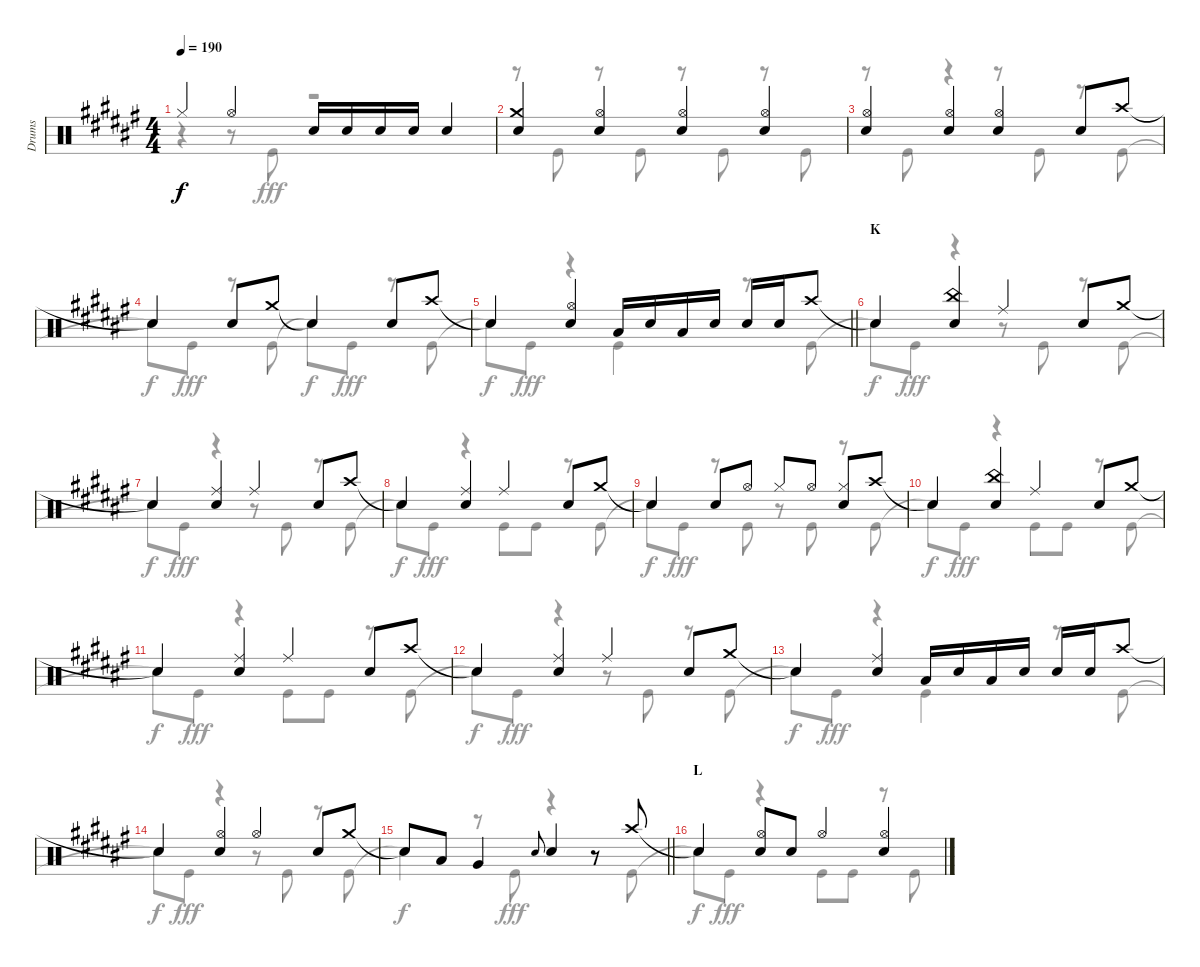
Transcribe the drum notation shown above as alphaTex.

\track ("Drums" "Drums") {instrument percussion}
\staff {score}
\articulation defaults
\voice
\ts (4 4)
\tempo 190
\clef neutral
\ks f# "Hi-Hat (closed)".4{dy f} "Hi-Hat (open)".4 "Snare (hit) 2".16 "Snare (hit) 2".16 "Snare (hit) 2".16 "Snare (hit) 2".16 "Snare (hit) 2".4
|
("Crash medium (hit)" "Snare (hit) 2").4 ("Hi-Hat (open)" "Snare (hit) 2").4 ("Hi-Hat (open)" "Snare (hit) 2").4 ("Hi-Hat (open)" "Snare (hit) 2").4 |
("Hi-Hat (open)" "Snare (hit) 2").4 ("Hi-Hat (open)" "Snare (hit) 2").4 ("Hi-Hat (open)" "Snare (hit) 2").4 "Snare (hit) 2".8 "Crash high (hit)".8 |
"Snare (hit)"{t}.4 "Snare (hit) 2".8 "Crash medium (hit)".8 "Snare (hit)"{t}.4 "Snare (hit) 2".8 "Crash high (hit)".8 |
\barLineRight lightlight "Snare (hit)"{t}.4
("Hi-Hat (open)" "Snare (hit) 2").4 "Low Tom (hit)".16 "Snare (hit) 2".16 "Low Tom (hit)".16 "Snare (hit) 2".16 "Snare (hit) 2".16 "Snare (hit) 2".16 "Crash high (hit)".8 |
\section ("" "K")
"Snare (hit)"{t}.4 ("China (hit)" "Snare (hit) 2").4 "Ride (middle)".4 "Snare (hit) 2".8 "Crash medium (hit)".8 |
"Snare (hit)"{t}.4 ("Ride (middle)" "Snare (hit) 2").4 "Ride (middle)".4 "Snare (hit) 2".8 "Crash high (hit)".8 |
"Snare (hit)"{t}.4 ("Ride (middle)" "Snare (hit) 2").4 "Ride (middle)".4 "Snare (hit) 2".8 "Crash medium (hit)".8 |
"Snare (hit)"{t}.4 "Snare (hit) 2".8 "Hi-Hat (open)".8 "Hi-Hat (closed)".8 "Hi-Hat (open)".8 ("Hi-Hat (closed)" "Snare (hit) 2").8 "Crash high (hit)".8 |
"Snare (hit)"{t}.4 ("China (hit)" "Snare (hit) 2").4 "Ride (middle)".4 "Snare (hit) 2".8 "Crash medium (hit)".8 |
"Snare (hit)"{t}.4 ("Ride (middle)" "Snare (hit) 2").4 "Ride (middle)".4 "Snare (hit) 2".8 "Crash high (hit)".8 |
"Snare (hit)"{t}.4 ("Ride (middle)" "Snare (hit) 2").4 "Ride (middle)".4 "Snare (hit) 2".8 "Crash medium (hit)".8 |
"Snare (hit)"{t}.4 ("Ride (middle)" "Snare (hit) 2").4 "Low Tom (hit)".16 "Snare (hit) 2".16 "Low Tom (hit)".16 "Snare (hit) 2".16 "Snare (hit) 2".16 "Snare (hit) 2".16 "Crash high (hit)".8 |
"Snare (hit)"{t}.4 ("Hi-Hat (open)" "Snare (hit) 2").4 "Hi-Hat (open)".4 "Snare (hit) 2".8 "Crash medium (hit)".8 |
\barLineRight lightlight "Snare (hit)"{t}.8 "Low Tom (hit)".8 "Very Low Tom (hit)".4 "Snare (hit) 2".8{gr onbeat} "Snare (hit) 2".4
r.8 "Crash high (hit)".8 |
\section ("" "L")
"Snare (hit)"{t}.4 ("Hi-Hat (open)" "Snare (hit) 2").8 "Snare (hit) 2".8 "Hi-Hat (open)".4 ("Hi-Hat (open)" "Snare (hit) 2").4
\voice
\clef neutral
\ottava regular
\simile none
\ks f#
r.4{dy fff} r.8 "Kick (hit)".8 r.2 |
r.8 "Kick (hit)".8 r.8 "Kick (hit)".8 r.8 "Kick (hit)".8 r.8 "Kick (hit)".8 |
r.8 "Kick (hit)".8 r.4 r.8 "Kick (hit)".8 r.8 "Kick (hit)".8 |
"Snare (hit)"{t}.8{dy f} "Kick (hit)".8{dy fff} r.8 "Kick (hit)".8 "Snare (hit)"{t}.8{dy f} "Kick (hit)".8{dy fff} r.8 "Kick (hit)".8 |
\barLineRight lightlight "Snare (hit)"{t}.8{dy f} "Kick (hit)".8{dy fff}
r.4 "Kick (hit)".4 r.8 "Kick (hit)".8 |
"Snare (hit)"{t}.8{dy f} "Kick (hit)".8{dy fff} r.4 r.8 "Kick (hit)".8 r.8 "Kick (hit)".8 |
"Snare (hit)"{t}.8{dy f} "Kick (hit)".8{dy fff} r.4 r.8 "Kick (hit)".8 r.8 "Kick (hit)".8 |
"Snare (hit)"{t}.8{dy f} "Kick (hit)".8{dy fff} r.4 "Kick (hit)".8 "Kick (hit)".8 r.8 "Kick (hit)".8 |
"Snare (hit)"{t}.8{dy f} "Kick (hit)".8{dy fff} r.8 "Kick (hit)".8 r.8 "Kick (hit)".8 r.8 "Kick (hit)".8 |
"Snare (hit)"{t}.8{dy f} "Kick (hit)".8{dy fff} r.4 "Kick (hit)".8 "Kick (hit)".8 r.8 "Kick (hit)".8 |
"Snare (hit)"{t}.8{dy f} "Kick (hit)".8{dy fff} r.4 "Kick (hit)".8 "Kick (hit)".8 r.8 "Kick (hit)".8 |
"Snare (hit)"{t}.8{dy f} "Kick (hit)".8{dy fff} r.4 r.8 "Kick (hit)".8 r.8 "Kick (hit)".8 |
"Snare (hit)"{t}.8{dy f} "Kick (hit)".8{dy fff} r.4 "Kick (hit)".4 r.8 "Kick (hit)".8 |
"Snare (hit)"{t}.8{dy f} "Kick (hit)".8{dy fff} r.4 r.8 "Kick (hit)".8 r.8 "Kick (hit)".8 |
\barLineRight lightlight "Snare (hit)"{t}.4{dy f}
r.8 "Kick (hit)".8{dy fff} r.4 r.8 "Kick (hit)".8 |
"Snare (hit)"{t}.8{dy f} "Kick (hit)".8{dy fff} r.4 "Kick (hit)".8 "Kick (hit)".8 r.8 "Kick (hit)".8
